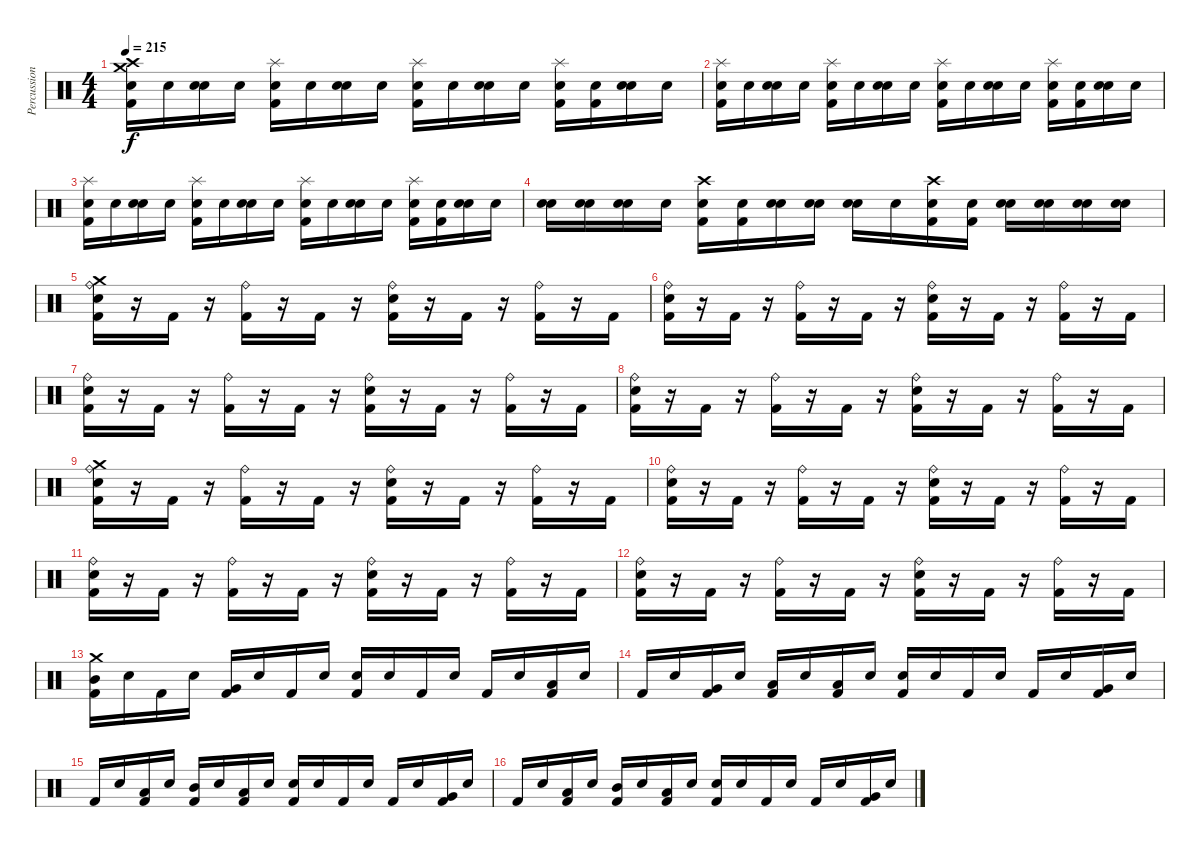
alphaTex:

\track ("Percussion" "Percussion") {instrument percussion}
\staff {score}
\articulation defaults
\ts (4 4)
\tempo 215
\clef neutral
\ks c
("Crash high (hit)" "Crash medium (hit)" "Kick (hit) 2" "Snare (hit)").16{dy f} "Snare (hit)".16 ("Snare (hit) 2" "Snare (hit)").16 "Snare (hit)".16 ("Splash (hit)" "Kick (hit) 2" "Snare (hit)").16 "Snare (hit)".16 ("Snare (hit) 2" "Snare (hit)").16 "Snare (hit)".16 ("Splash (hit)" "Kick (hit) 2" "Snare (hit)").16 "Snare (hit)".16 ("Snare (hit) 2" "Snare (hit)").16 "Snare (hit)".16 ("Splash (hit)" "Kick (hit) 2" "Snare (hit)").16 ("Kick (hit) 2" "Snare (hit)").16 ("Snare (hit) 2" "Snare (hit)").16 "Snare (hit)".16 |
("Splash (hit)" "Kick (hit) 2" "Snare (hit)").16 "Snare (hit)".16 ("Snare (hit) 2" "Snare (hit)").16 "Snare (hit)".16 ("Splash (hit)" "Kick (hit) 2" "Snare (hit)").16 "Snare (hit)".16 ("Snare (hit) 2" "Snare (hit)").16 "Snare (hit)".16 ("Splash (hit)" "Kick (hit) 2" "Snare (hit)").16 "Snare (hit)".16 ("Snare (hit) 2" "Snare (hit)").16 "Snare (hit)".16 ("Splash (hit)" "Kick (hit) 2" "Snare (hit)").16 ("Kick (hit) 2" "Snare (hit)").16 ("Snare (hit) 2" "Snare (hit)").16 "Snare (hit)".16 |
("Splash (hit)" "Kick (hit) 2" "Snare (hit)").16 "Snare (hit)".16 ("Snare (hit) 2" "Snare (hit)").16 "Snare (hit)".16 ("Splash (hit)" "Kick (hit) 2" "Snare (hit)").16 "Snare (hit)".16 ("Snare (hit) 2" "Snare (hit)").16 "Snare (hit)".16 ("Splash (hit)" "Kick (hit) 2" "Snare (hit)").16 "Snare (hit)".16 ("Snare (hit) 2" "Snare (hit)").16 "Snare (hit)".16 ("Splash (hit)" "Kick (hit) 2" "Snare (hit)").16 ("Kick (hit) 2" "Snare (hit)").16 ("Snare (hit) 2" "Snare (hit)").16 "Snare (hit)".16 |
("Snare (hit) 2" "Snare (hit)").16 ("Snare (hit) 2" "Snare (hit)").16 ("Snare (hit) 2" "Snare (hit)").16 "Snare (hit)".16 ("Crash high (hit)" "Kick (hit) 2" "Snare (hit)").16 ("Kick (hit) 2" "Snare (hit)").16 ("Snare (hit) 2" "Snare (hit)").16 ("Snare (hit) 2" "Snare (hit)").16 ("Snare (hit) 2" "Snare (hit)").16 "Snare (hit)".16 ("Crash high (hit)" "Kick (hit) 2" "Snare (hit)").16 ("Kick (hit) 2" "Snare (hit)").16 ("Snare (hit) 2" "Snare (hit)").16 ("Snare (hit) 2" "Snare (hit)").16 ("Snare (hit) 2" "Snare (hit)").16 ("Snare (hit) 2" "Snare (hit)").16 |
("Crash medium (hit)" "Ride (bell)" "Snare (hit) 2" "Kick (hit) 2").16 r.16 "Kick (hit) 2".16 r.16 ("Ride (bell)" "Kick (hit) 2").16 r.16 "Kick (hit) 2".16 r.16 ("Ride (bell)" "Snare (hit) 2" "Kick (hit) 2").16 r.16 "Kick (hit) 2".16 r.16 ("Ride (bell)" "Kick (hit) 2").16 r.16 "Kick (hit) 2".16 |
("Ride (bell)" "Snare (hit) 2" "Kick (hit) 2").16 r.16 "Kick (hit) 2".16 r.16 ("Ride (bell)" "Kick (hit) 2").16 r.16 "Kick (hit) 2".16 r.16 ("Ride (bell)" "Snare (hit) 2" "Kick (hit) 2").16 r.16 "Kick (hit) 2".16 r.16 ("Ride (bell)" "Kick (hit) 2").16 r.16 "Kick (hit) 2".16 |
("Ride (bell)" "Snare (hit) 2" "Kick (hit) 2").16 r.16 "Kick (hit) 2".16 r.16 ("Ride (bell)" "Kick (hit) 2").16 r.16 "Kick (hit) 2".16 r.16 ("Ride (bell)" "Snare (hit) 2" "Kick (hit) 2").16 r.16 "Kick (hit) 2".16 r.16 ("Ride (bell)" "Kick (hit) 2").16 r.16 "Kick (hit) 2".16 |
("Ride (bell)" "Snare (hit) 2" "Kick (hit) 2").16 r.16 "Kick (hit) 2".16 r.16 ("Ride (bell)" "Kick (hit) 2").16 r.16 "Kick (hit) 2".16 r.16 ("Ride (bell)" "Snare (hit) 2" "Kick (hit) 2").16 r.16 "Kick (hit) 2".16 r.16 ("Ride (bell)" "Kick (hit) 2").16 r.16 "Kick (hit) 2".16 |
("Crash medium (hit)" "Ride (bell)" "Snare (hit) 2" "Kick (hit) 2").16 r.16 "Kick (hit) 2".16 r.16 ("Ride (bell)" "Kick (hit) 2").16 r.16 "Kick (hit) 2".16 r.16 ("Ride (bell)" "Snare (hit) 2" "Kick (hit) 2").16 r.16 "Kick (hit) 2".16 r.16 ("Ride (bell)" "Kick (hit) 2").16 r.16 "Kick (hit) 2".16 |
("Ride (bell)" "Snare (hit) 2" "Kick (hit) 2").16 r.16 "Kick (hit) 2".16 r.16 ("Ride (bell)" "Kick (hit) 2").16 r.16 "Kick (hit) 2".16 r.16 ("Ride (bell)" "Snare (hit) 2" "Kick (hit) 2").16 r.16 "Kick (hit) 2".16 r.16 ("Ride (bell)" "Kick (hit) 2").16 r.16 "Kick (hit) 2".16 |
("Ride (bell)" "Snare (hit) 2" "Kick (hit) 2").16 r.16 "Kick (hit) 2".16 r.16 ("Ride (bell)" "Kick (hit) 2").16 r.16 "Kick (hit) 2".16 r.16 ("Ride (bell)" "Snare (hit) 2" "Kick (hit) 2").16 r.16 "Kick (hit) 2".16 r.16 ("Ride (bell)" "Kick (hit) 2").16 r.16 "Kick (hit) 2".16 |
("Ride (bell)" "Snare (hit) 2" "Kick (hit) 2").16 r.16 "Kick (hit) 2".16 r.16 ("Ride (bell)" "Kick (hit) 2").16 r.16 "Kick (hit) 2".16 r.16 ("Ride (bell)" "Snare (hit) 2" "Kick (hit) 2").16 r.16 "Kick (hit) 2".16 r.16 ("Ride (bell)" "Kick (hit) 2").16 r.16 "Kick (hit) 2".16 |
("Crash medium (hit)" "Mid Tom (hit)" "Kick (hit) 2").16 "Snare (hit)".16 "Kick (hit) 2".16 "Snare (hit)".16 ("Very Low Tom (hit)" "Kick (hit) 2").16 "Snare (hit)".16 "Kick (hit) 2".16 "Snare (hit)".16 ("Snare (hit) 2" "Kick (hit) 2").16 "Snare (hit)".16 "Kick (hit) 2".16 "Snare (hit)".16 "Kick (hit) 2".16 "Snare (hit)".16 ("Low Tom (hit)" "Kick (hit) 2").16 "Snare (hit)".16 |
"Kick (hit) 2".16 "Snare (hit)".16 ("Very Low Tom (hit)" "Kick (hit) 2").16 "Snare (hit)".16 ("Low Tom (hit)" "Kick (hit) 2").16 "Snare (hit)".16 ("Low Floor Tom (hit)" "Kick (hit) 2").16 "Snare (hit)".16 ("Snare (hit) 2" "Kick (hit) 2").16 "Snare (hit)".16 "Kick (hit) 2".16 "Snare (hit)".16 "Kick (hit) 2".16 "Snare (hit)".16 ("Very Low Tom (hit)" "Kick (hit) 2").16 "Snare (hit)".16 |
"Kick (hit) 2".16 "Snare (hit)".16 ("Low Tom (hit)" "Kick (hit) 2").16 "Snare (hit)".16 ("Mid Tom (hit)" "Kick (hit) 2").16 "Snare (hit)".16 ("Low Floor Tom (hit)" "Kick (hit) 2").16 "Snare (hit)".16 ("Snare (hit) 2" "Kick (hit) 2").16 "Snare (hit)".16 "Kick (hit) 2".16 "Snare (hit)".16 "Kick (hit) 2".16 "Snare (hit)".16 ("Very Low Tom (hit)" "Kick (hit) 2").16 "Snare (hit)".16 |
"Kick (hit) 2".16 "Snare (hit)".16 ("Low Tom (hit)" "Kick (hit) 2").16 "Snare (hit)".16 ("Mid Tom (hit)" "Kick (hit) 2").16 "Snare (hit)".16 ("Low Floor Tom (hit)" "Kick (hit) 2").16 "Snare (hit)".16 ("Snare (hit) 2" "Kick (hit) 2").16 "Snare (hit)".16 "Kick (hit) 2".16 "Snare (hit)".16 "Kick (hit) 2".16 "Snare (hit)".16 ("Very Low Tom (hit)" "Kick (hit) 2").16 "Snare (hit)".16
